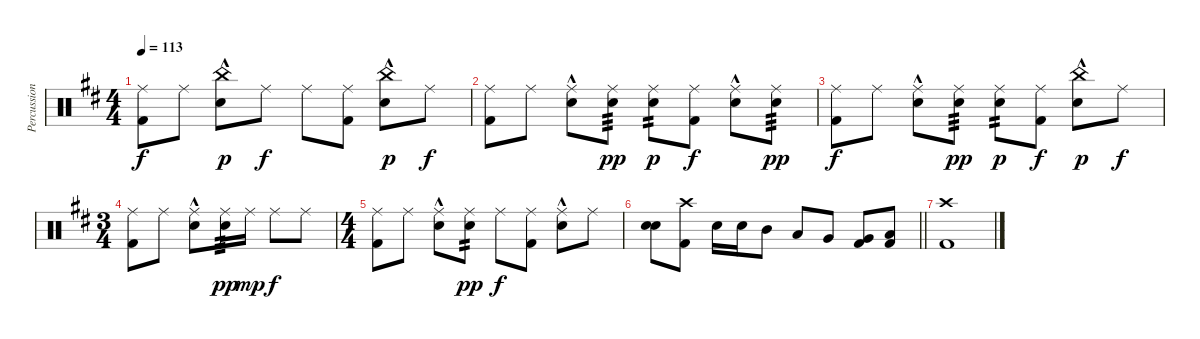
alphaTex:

\track ("Percussion" "Percussion") {instrument percussion}
\staff {score}
\articulation defaults
\ts (4 4)
\tempo 113
\clef neutral
\ks bminor
("Ride (middle)" "Kick (hit) 2").8{dy f} "Ride (middle)".8 ("China (hit)" "Snare (hit) 2"{hac}).8{dy p} "Ride (middle)".8{dy f} "Ride (middle)".8 ("Ride (middle)" "Kick (hit) 2").8 ("China (hit)" "Snare (hit) 2"{hac}).8{dy p} "Ride (middle)".8{dy f} |
("Ride (middle)" "Kick (hit) 2").8 "Ride (middle)".8 ("Ride (middle)" "Snare (hit) 2"{hac}).8 ("Ride (middle)" "Snare (hit) 2").8{tp 3 dy pp} ("Ride (middle)" "Snare (hit) 2").8{tp 2 dy p} ("Ride (middle)" "Kick (hit) 2").8{dy f} ("Ride (middle)" "Snare (hit) 2"{hac}).8 ("Ride (middle)" "Snare (hit) 2").8{tp 3 dy pp} |
("Ride (middle)" "Kick (hit) 2").8{dy f} "Ride (middle)".8 ("Ride (middle)" "Snare (hit) 2"{hac}).8 ("Ride (middle)" "Snare (hit) 2").8{tp 3 dy pp} ("Ride (middle)" "Snare (hit) 2").8{tp 2 dy p} ("Ride (middle)" "Kick (hit) 2").8{dy f} ("China (hit)" "Snare (hit) 2"{hac}).8{dy p} "Ride (middle)".8{dy f} |
\ts (3 4)
("Ride (middle)" "Kick (hit) 2").8 "Ride (middle)".8 ("Ride (middle)" "Snare (hit) 2"{hac}).8 ("Ride (middle)" "Snare (hit) 2").16{tp 3 dy pp} "Ride (middle)".16{dy mp} "Ride (middle)".8{dy f} "Ride (middle)".8 |
\ts (4 4)
("Ride (middle)" "Kick (hit) 2").8 "Ride (middle)".8 ("Ride (middle)" "Snare (hit) 2"{hac}).8 ("Ride (middle)" "Snare (hit) 2").8{tp 2 dy pp} "Ride (middle)".8{dy f} ("Ride (middle)" "Kick (hit) 2").8 ("Ride (middle)" "Snare (hit) 2"{hac}).8 "Ride (middle)".8 |
\barLineRight lightlight
("Snare (hit) 2" "Snare (hit) 2").8{bd 120} ("Crash high (hit)" "Kick (hit) 2").8 "Snare (hit) 2".16 "Snare (hit) 2".16 "Mid Tom (hit)".8 "Low Tom (hit)".8 "Very Low Tom (hit)".8 ("Very Low Tom (hit)" "Kick (hit) 2").8 ("Low Floor Tom (hit)" "Kick (hit) 2").8 |
\section ("" "")
("Crash high (hit)" "Kick (hit) 2").1
